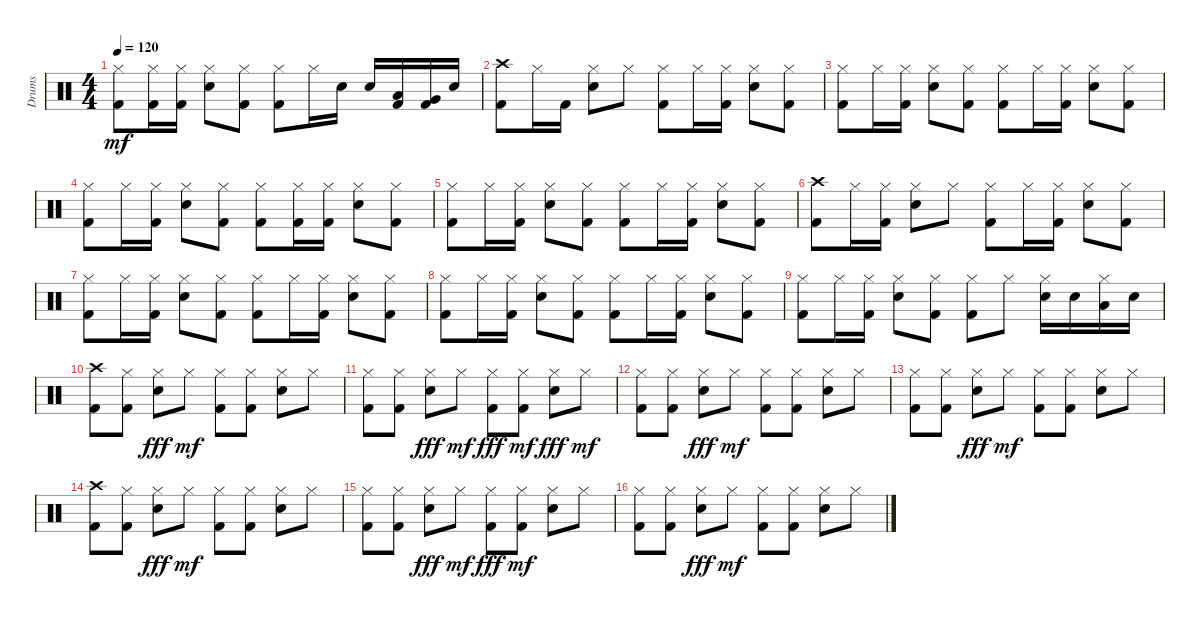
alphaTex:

\track ("Drums" "Drums") {instrument percussion}
\staff {score}
\articulation defaults
\ts (4 4)
\tempo 120
\clef neutral
\ks c
("Kick (hit) 2" "Hi-Hat (closed)").8{dy mf} ("Kick (hit) 2" "Hi-Hat (closed)").16 ("Hi-Hat (closed)" "Kick (hit) 2").16 ("Hi-Hat (closed)" "Snare (hit) 2").8 ("Hi-Hat (closed)" "Kick (hit) 2").8 ("Hi-Hat (closed)" "Kick (hit) 2").8 "Hi-Hat (closed)".16 "Snare (hit) 2".16 "Snare (hit) 2".16 ("Kick (hit) 2" "Low Tom (hit)").16 ("Kick (hit) 2" "Very Low Tom (hit)").16 "Snare (hit) 2".16 |
("Crash high (hit)" "Kick (hit) 2").8 "Hi-Hat (closed)".16 "Kick (hit) 2".16 ("Hi-Hat (closed)" "Snare (hit) 2").8 "Hi-Hat (closed)".8 ("Kick (hit) 2" "Hi-Hat (closed)").8 "Hi-Hat (closed)".16 ("Hi-Hat (closed)" "Kick (hit) 2").16 ("Hi-Hat (closed)" "Snare (hit) 2").8 ("Hi-Hat (closed)" "Kick (hit) 2").8 |
("Kick (hit) 2" "Hi-Hat (closed)").8 "Hi-Hat (closed)".16 ("Hi-Hat (closed)" "Kick (hit) 2").16 ("Hi-Hat (closed)" "Snare (hit) 2").8 ("Hi-Hat (closed)" "Kick (hit) 2").8 ("Hi-Hat (closed)" "Kick (hit) 2").8 "Hi-Hat (closed)".16 ("Kick (hit) 2" "Hi-Hat (closed)").16 ("Hi-Hat (closed)" "Snare (hit) 2").8 ("Kick (hit) 2" "Hi-Hat (closed)").8 |
("Hi-Hat (closed)" "Kick (hit) 2").8 "Hi-Hat (closed)".16 ("Hi-Hat (closed)" "Kick (hit) 2").16 ("Hi-Hat (closed)" "Snare (hit) 2").8 ("Kick (hit) 2" "Hi-Hat (closed)").8 ("Kick (hit) 2" "Hi-Hat (closed)").8 ("Kick (hit) 2" "Hi-Hat (closed)").16 ("Hi-Hat (closed)" "Kick (hit) 2").16 ("Hi-Hat (closed)" "Snare (hit) 2").8 ("Kick (hit) 2" "Hi-Hat (closed)").8 |
("Kick (hit) 2" "Hi-Hat (closed)").8 "Hi-Hat (closed)".16 ("Hi-Hat (closed)" "Kick (hit) 2").16 ("Snare (hit) 2" "Hi-Hat (closed)").8 ("Hi-Hat (closed)" "Kick (hit) 2").8 ("Hi-Hat (closed)" "Kick (hit) 2").8 "Hi-Hat (closed)".16 ("Hi-Hat (closed)" "Kick (hit) 2").16 ("Hi-Hat (closed)" "Snare (hit) 2").8 ("Hi-Hat (closed)" "Kick (hit) 2").8 |
("Kick (hit) 2" "Crash high (hit)").8 "Hi-Hat (closed)".16 ("Kick (hit) 2" "Hi-Hat (closed)").16 ("Snare (hit) 2" "Hi-Hat (closed)").8 "Hi-Hat (closed)".8 ("Kick (hit) 2" "Hi-Hat (closed)").8 "Hi-Hat (closed)".16 ("Kick (hit) 2" "Hi-Hat (closed)").16 ("Hi-Hat (closed)" "Snare (hit) 2").8 ("Kick (hit) 2" "Hi-Hat (closed)").8 |
("Hi-Hat (closed)" "Kick (hit) 2").8 "Hi-Hat (closed)".16 ("Hi-Hat (closed)" "Kick (hit) 2").16 ("Hi-Hat (closed)" "Snare (hit) 2").8 ("Kick (hit) 2" "Hi-Hat (closed)").8 ("Kick (hit) 2" "Hi-Hat (closed)").8 "Hi-Hat (closed)".16 ("Kick (hit) 2" "Hi-Hat (closed)").16 ("Snare (hit) 2" "Hi-Hat (closed)").8 ("Kick (hit) 2" "Hi-Hat (closed)").8 |
("Hi-Hat (closed)" "Kick (hit) 2").8 "Hi-Hat (closed)".16 ("Kick (hit) 2" "Hi-Hat (closed)").16 ("Snare (hit) 2" "Hi-Hat (closed)").8 ("Kick (hit) 2" "Hi-Hat (closed)").8 ("Kick (hit) 2" "Hi-Hat (closed)").8 "Hi-Hat (closed)".16 ("Kick (hit) 2" "Hi-Hat (closed)").16 ("Hi-Hat (closed)" "Snare (hit) 2").8 ("Hi-Hat (closed)" "Kick (hit) 2").8 |
("Hi-Hat (closed)" "Kick (hit) 2").8 "Hi-Hat (closed)".16 ("Hi-Hat (closed)" "Kick (hit) 2").16 ("Hi-Hat (closed)" "Snare (hit) 2").8 ("Hi-Hat (closed)" "Kick (hit) 2").8 ("Kick (hit) 2" "Hi-Hat (closed)").8 "Hi-Hat (closed)".8 ("Hi-Hat (closed)" "Snare (hit) 2").16 "Snare (hit) 2".16 ("Hi-Hat (closed)" "Low Tom (hit)").16 "Snare (hit) 2".16 |
("Crash high (hit)" "Kick (hit) 2").8 ("Kick (hit) 2" "Hi-Hat (closed)").8 ("Snare (hit) 2" "Hi-Hat (closed)").8{dy fff} "Hi-Hat (closed)".8{dy mf} ("Hi-Hat (closed)" "Kick (hit) 2").8 ("Kick (hit) 2" "Hi-Hat (closed)").8 ("Hi-Hat (closed)" "Snare (hit) 2").8 "Hi-Hat (closed)".8 |
("Hi-Hat (closed)" "Kick (hit) 2").8 ("Kick (hit) 2" "Hi-Hat (closed)").8 ("Snare (hit) 2" "Hi-Hat (closed)").8{dy fff} "Hi-Hat (closed)".8{dy mf} ("Kick (hit) 2" "Hi-Hat (closed)").8{dy fff} ("Kick (hit) 2" "Hi-Hat (closed)").8{dy mf} ("Snare (hit) 2" "Hi-Hat (closed)").8{dy fff} "Hi-Hat (closed)".8{dy mf} |
("Hi-Hat (closed)" "Kick (hit) 2").8 ("Hi-Hat (closed)" "Kick (hit) 2").8 ("Snare (hit) 2" "Hi-Hat (closed)").8{dy fff} "Hi-Hat (closed)".8{dy mf} ("Hi-Hat (closed)" "Kick (hit) 2").8 ("Kick (hit) 2" "Hi-Hat (closed)").8 ("Hi-Hat (closed)" "Snare (hit) 2").8 "Hi-Hat (closed)".8 |
("Hi-Hat (closed)" "Kick (hit) 2").8 ("Hi-Hat (closed)" "Kick (hit) 2").8 ("Snare (hit) 2" "Hi-Hat (closed)").8{dy fff} "Hi-Hat (closed)".8{dy mf} ("Hi-Hat (closed)" "Kick (hit) 2").8 ("Kick (hit) 2" "Hi-Hat (closed)").8 ("Hi-Hat (closed)" "Snare (hit) 2").8 "Hi-Hat (closed)".8 |
("Crash high (hit)" "Kick (hit) 2").8 ("Kick (hit) 2" "Hi-Hat (closed)").8 ("Snare (hit) 2" "Hi-Hat (closed)").8{dy fff} "Hi-Hat (closed)".8{dy mf} ("Hi-Hat (closed)" "Kick (hit) 2").8 ("Hi-Hat (closed)" "Kick (hit) 2").8 ("Hi-Hat (closed)" "Snare (hit) 2").8 "Hi-Hat (closed)".8 |
("Hi-Hat (closed)" "Kick (hit) 2").8 ("Hi-Hat (closed)" "Kick (hit) 2").8 ("Snare (hit) 2" "Hi-Hat (closed)").8{dy fff} "Hi-Hat (closed)".8{dy mf} ("Kick (hit) 2" "Hi-Hat (closed)").8{dy fff} ("Kick (hit) 2" "Hi-Hat (closed)").8{dy mf} ("Hi-Hat (closed)" "Snare (hit) 2").8 "Hi-Hat (closed)".8 |
("Hi-Hat (closed)" "Kick (hit) 2").8 ("Kick (hit) 2" "Hi-Hat (closed)").8 ("Snare (hit) 2" "Hi-Hat (closed)").8{dy fff} "Hi-Hat (closed)".8{dy mf} ("Hi-Hat (closed)" "Kick (hit) 2").8 ("Kick (hit) 2" "Hi-Hat (closed)").8 ("Hi-Hat (closed)" "Snare (hit) 2").8 "Hi-Hat (closed)".8
